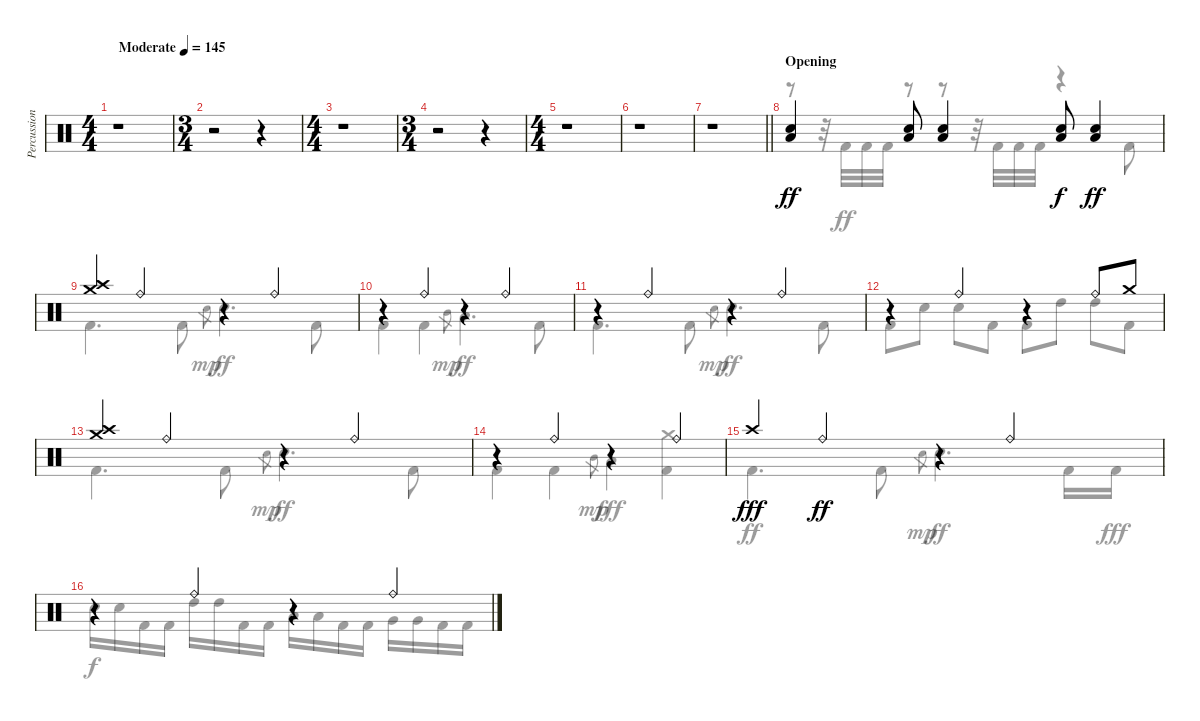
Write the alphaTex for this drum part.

\track ("Percussion" "Percussion") {instrument percussion}
\staff {score}
\articulation defaults
\voice
\ts (4 4)
\tempo (145 "Moderate")
\clef neutral
\ks c
r.1{dy ff} |
\ts (3 4)
r.2 r.4 |
\ts (4 4)
r.1 |
\ts (3 4)
r.2 r.4 |
\ts (4 4)
r.1 |
r.1 |
\barLineRight lightlight
r.1 |
\section ("" "Opening")
("Low Floor Tom (hit)" "Electric Snare (hit)").4 ("Low Floor Tom (hit)" "Electric Snare (hit)").8 ("Low Floor Tom (hit)" "Electric Snare (hit)").4 ("Low Floor Tom (hit)" "Electric Snare (hit)").8{dy f} ("Low Floor Tom (hit)" "Electric Snare (hit)").4{dy ff} |
("Crash high (hit)" "Crash medium (hit)").4 "Ride (bell)".4 r.4 "Ride (bell)".4 |
r.4 "Ride (bell)".4 r.4 "Ride (bell)".4 |
r.4 "Ride (bell)".4 r.4 "Ride (bell)".4 |
r.4 "Ride (bell)".4 r.4 "Ride (bell)".8 "Crash medium (hit)".8 |
("Crash high (hit)" "Crash medium (hit)").4 "Ride (bell)".4 r.4 "Ride (bell)".4 |
r.4 "Ride (bell)".4 r.4 "Ride (bell)".4 |
"Crash high (hit)".4{dy fff} "Ride (bell)".4{dy ff} r.4 "Ride (bell)".4 |
r.4 "Ride (bell)".4 r.4 "Ride (bell)".4
\voice
\clef neutral
\ottava regular
\simile none
\ks c
|
|
|
|
|
|
\barLineRight lightlight
|
r.8 r.32 "Kick (hit) 2".32 "Kick (hit) 2".32 "Kick (hit) 2".32 r.8 r.8 r.32 "Kick (hit) 2".32 "Kick (hit) 2".32 "Kick (hit) 2".32 r.4 "Kick (hit) 2".8{dy ff} |
"Kick (hit) 2".4{d} "Kick (hit) 2".8 "Electric Snare (hit)".8{gr dy mp} "Electric Snare (hit)".4{d dy ff} "Kick (hit) 2".8 |
"Kick (hit) 2".4 "Kick (hit) 2".4 "Mid Tom (hit)".8{gr dy mp} "Low Tom (hit)".4{d dy ff} "Kick (hit) 2".8 |
"Kick (hit) 2".4{d} "Kick (hit) 2".8 "Electric Snare (hit)".8{gr dy mp} "Electric Snare (hit)".4{d dy ff} "Kick (hit) 2".8 |
"Kick (hit) 2".8 "Electric Snare (hit)".8 "Electric Snare (hit)".8 "Kick (hit) 2".8 "Kick (hit) 2".8 "High Tom (hit)".8 "High Tom (hit)".8 "Kick (hit) 2".8 |
"Kick (hit) 2".4{d} "Kick (hit) 2".8 "Electric Snare (hit)".8{gr dy mp} "Electric Snare (hit)".4{d dy ff} "Kick (hit) 2".8 |
"Kick (hit) 2".4 "Kick (hit) 2".4 "Mid Tom (hit)".8{gr dy mp} "Low Tom (hit)".4{dy fff} ("Crash medium (hit)" "Kick (hit) 2").4 |
"Kick (hit) 2".4{d dy ff} "Kick (hit) 2".8 "Electric Snare (hit)".8{gr dy mp} "Electric Snare (hit)".4{d dy ff} "Kick (hit) 2".16 "Kick (hit) 2".16{dy fff} |
"Electric Snare (hit)".16{dy f} "Electric Snare (hit)".16 "Kick (hit) 2".16 "Kick (hit) 2".16 "High Tom (hit)".16 "High Tom (hit)".16 "Kick (hit) 2".16 "Kick (hit) 2".16 "Low Tom (hit)".16 "Low Tom (hit)".16 "Kick (hit) 2".16 "Kick (hit) 2".16 "Very Low Tom (hit)".16 "Very Low Tom (hit)".16 "Kick (hit) 2".16 "Kick (hit) 2".16
